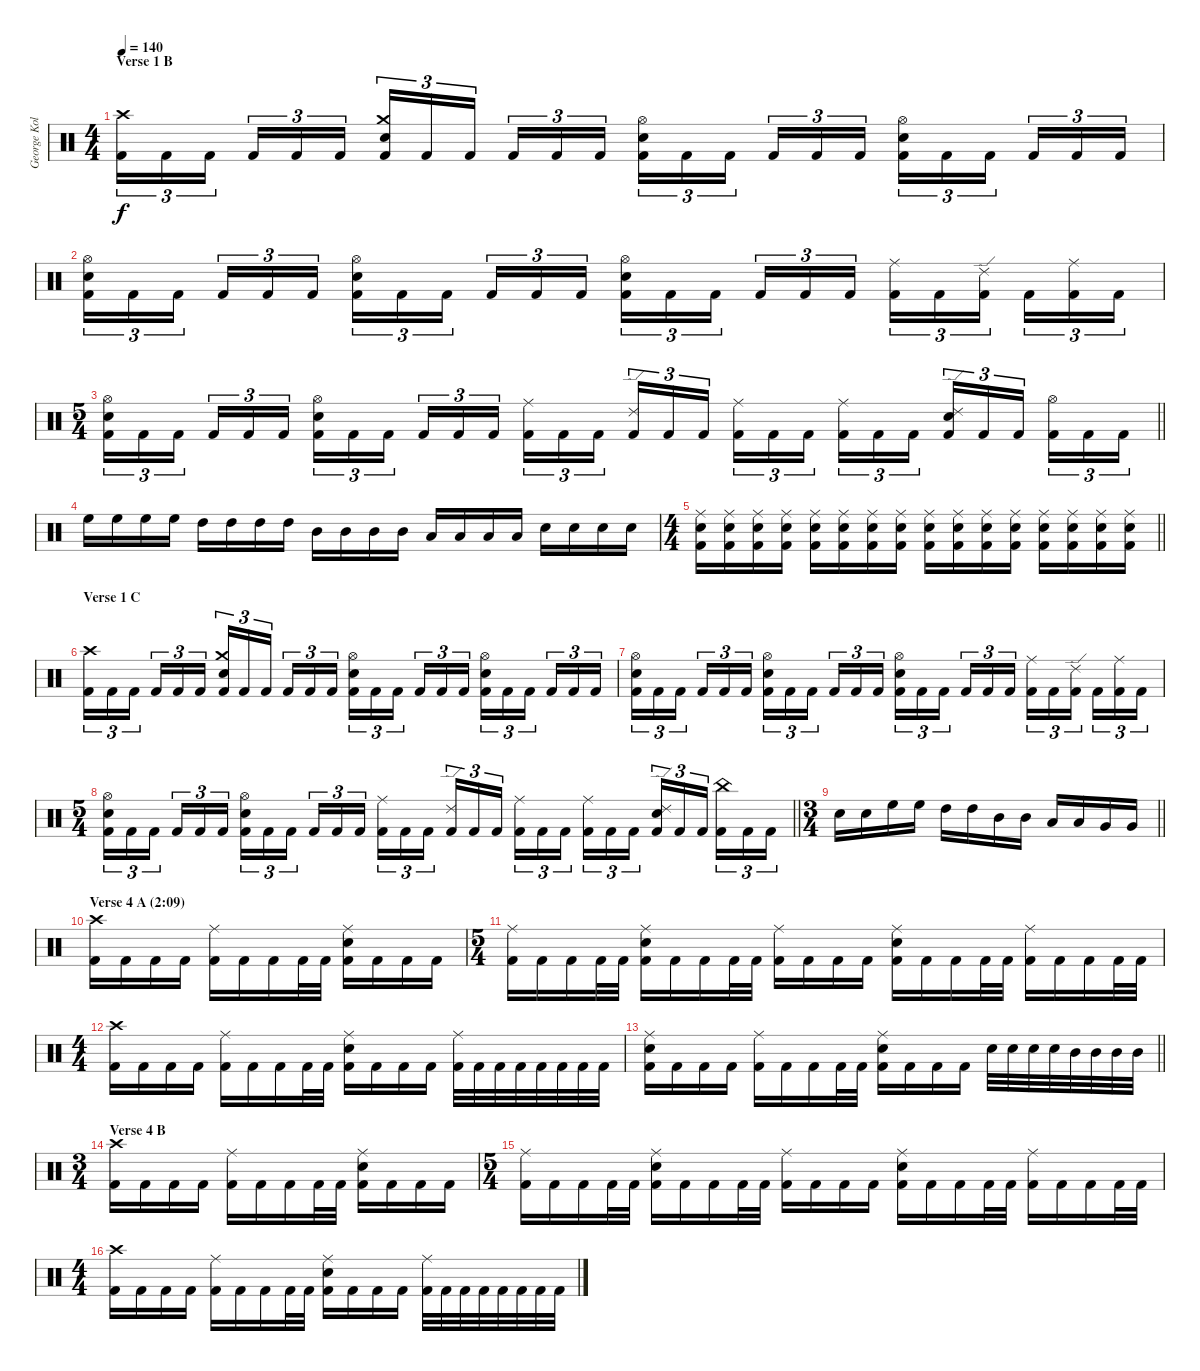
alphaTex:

\track ("George Kollias" "George Kol") {instrument percussion}
\staff {score}
\articulation defaults
\ts (4 4)
\section ("" "Verse 1 B")
\tempo 140
\clef neutral
\ks c
("Crash high (hit)" "Kick (hit) 2").16{tu (3 2) dy f} "Kick (hit) 2".16{tu (3 2)} "Kick (hit) 2".16{tu (3 2) beam splitsecondary} "Kick (hit) 2".16{tu (3 2)} "Kick (hit) 2".16{tu (3 2)} "Kick (hit) 2".16{tu (3 2)} ("Crash medium (hit)" "Electric Snare (hit)" "Kick (hit) 2").16{tu (3 2)} "Kick (hit) 2".16{tu (3 2)} "Kick (hit) 2".16{tu (3 2) beam splitsecondary} "Kick (hit) 2".16{tu (3 2)} "Kick (hit) 2".16{tu (3 2)} "Kick (hit) 2".16{tu (3 2)} ("Hi-Hat (open)" "Electric Snare (hit)" "Kick (hit) 2").16{tu (3 2)} "Kick (hit) 2".16{tu (3 2)} "Kick (hit) 2".16{tu (3 2) beam splitsecondary} "Kick (hit) 2".16{tu (3 2)} "Kick (hit) 2".16{tu (3 2)} "Kick (hit) 2".16{tu (3 2)} ("Hi-Hat (open)" "Electric Snare (hit)" "Kick (hit) 2").16{tu (3 2)} "Kick (hit) 2".16{tu (3 2)} "Kick (hit) 2".16{tu (3 2) beam splitsecondary} "Kick (hit) 2".16{tu (3 2)} "Kick (hit) 2".16{tu (3 2)} "Kick (hit) 2".16{tu (3 2)} |
("Hi-Hat (open)" "Electric Snare (hit)" "Kick (hit) 2").16{tu (3 2)} "Kick (hit) 2".16{tu (3 2)} "Kick (hit) 2".16{tu (3 2) beam splitsecondary} "Kick (hit) 2".16{tu (3 2)} "Kick (hit) 2".16{tu (3 2)} "Kick (hit) 2".16{tu (3 2)} ("Hi-Hat (open)" "Electric Snare (hit)" "Kick (hit) 2").16{tu (3 2)} "Kick (hit) 2".16{tu (3 2)} "Kick (hit) 2".16{tu (3 2) beam splitsecondary} "Kick (hit) 2".16{tu (3 2)} "Kick (hit) 2".16{tu (3 2)} "Kick (hit) 2".16{tu (3 2)} ("Hi-Hat (open)" "Electric Snare (hit)" "Kick (hit) 2").16{tu (3 2)} "Kick (hit) 2".16{tu (3 2)} "Kick (hit) 2".16{tu (3 2) beam splitsecondary} "Kick (hit) 2".16{tu (3 2)} "Kick (hit) 2".16{tu (3 2)} "Kick (hit) 2".16{tu (3 2)} ("Ride (middle)" "Kick (hit) 2").16{tu (3 2)} "Kick (hit) 2".16{tu (3 2)} ("Ride (edge) 2" "Kick (hit) 2").16{tu (3 2) beam splitsecondary} "Kick (hit) 2".16{tu (3 2)} ("Ride (middle)" "Kick (hit) 2").16{tu (3 2)} "Kick (hit) 2".16{tu (3 2)} |
\ts (5 4)
\barLineRight lightlight
("Hi-Hat (open)" "Electric Snare (hit)" "Kick (hit) 2").16{tu (3 2)} "Kick (hit) 2".16{tu (3 2)} "Kick (hit) 2".16{tu (3 2) beam splitsecondary} "Kick (hit) 2".16{tu (3 2)} "Kick (hit) 2".16{tu (3 2)} "Kick (hit) 2".16{tu (3 2)} ("Hi-Hat (open)" "Electric Snare (hit)" "Kick (hit) 2").16{tu (3 2)} "Kick (hit) 2".16{tu (3 2)} "Kick (hit) 2".16{tu (3 2) beam splitsecondary} "Kick (hit) 2".16{tu (3 2)} "Kick (hit) 2".16{tu (3 2)} "Kick (hit) 2".16{tu (3 2)} ("Ride (middle)" "Kick (hit) 2").16{tu (3 2)} "Kick (hit) 2".16{tu (3 2)} "Kick (hit) 2".16{tu (3 2) beam splitsecondary} ("Ride (edge) 2" "Kick (hit) 2").16{tu (3 2)} "Kick (hit) 2".16{tu (3 2)} "Kick (hit) 2".16{tu (3 2)} ("Ride (middle)" "Kick (hit) 2").16{tu (3 2)} "Kick (hit) 2".16{tu (3 2)} "Kick (hit) 2".16{tu (3 2) beam splitsecondary} ("Ride (middle)" "Kick (hit) 2").16{tu (3 2)} "Kick (hit) 2".16{tu (3 2)} "Kick (hit) 2".16{tu (3 2)} ("Ride (edge) 2" "Electric Snare (hit)" "Kick (hit) 2").16{tu (3 2)} "Kick (hit) 2".16{tu (3 2)} "Kick (hit) 2".16{tu (3 2) beam splitsecondary} ("Hi-Hat (open)" "Kick (hit) 2").16{tu (3 2)} "Kick (hit) 2".16{tu (3 2)} "Kick (hit) 2".16{tu (3 2)} |
"High Floor Tom (hit)".16 "High Floor Tom (hit)".16 "High Floor Tom (hit)".16 "High Floor Tom (hit)".16 "High Tom (hit)".16 "High Tom (hit)".16 "High Tom (hit)".16 "High Tom (hit)".16 "Mid Tom (hit)".16 "Mid Tom (hit)".16 "Mid Tom (hit)".16 "Mid Tom (hit)".16 "Low Tom (hit)".16 "Low Tom (hit)".16 "Low Tom (hit)".16 "Low Tom (hit)".16 "Electric Snare (hit)".16 "Electric Snare (hit)".16 "Electric Snare (hit)".16 "Electric Snare (hit)".16 |
\ts (4 4)
\barLineRight lightlight
("Ride (middle)" "Electric Snare (hit)" "Kick (hit) 2").16 ("Ride (middle)" "Electric Snare (hit)" "Kick (hit) 2").16 ("Ride (middle)" "Electric Snare (hit)" "Kick (hit) 2").16 ("Ride (middle)" "Electric Snare (hit)" "Kick (hit) 2").16 ("Ride (middle)" "Electric Snare (hit)" "Kick (hit) 2").16 ("Ride (middle)" "Electric Snare (hit)" "Kick (hit) 2").16 ("Ride (middle)" "Electric Snare (hit)" "Kick (hit) 2").16 ("Ride (middle)" "Electric Snare (hit)" "Kick (hit) 2").16 ("Ride (middle)" "Electric Snare (hit)" "Kick (hit) 2").16 ("Ride (middle)" "Electric Snare (hit)" "Kick (hit) 2").16 ("Ride (middle)" "Electric Snare (hit)" "Kick (hit) 2").16 ("Ride (middle)" "Electric Snare (hit)" "Kick (hit) 2").16 ("Ride (middle)" "Electric Snare (hit)" "Kick (hit) 2").16 ("Ride (middle)" "Electric Snare (hit)" "Kick (hit) 2").16 ("Ride (middle)" "Electric Snare (hit)" "Kick (hit) 2").16 ("Ride (middle)" "Electric Snare (hit)" "Kick (hit) 2").16 |
\section ("" "Verse 1 C")
("Crash high (hit)" "Kick (hit) 2").16{tu (3 2)} "Kick (hit) 2".16{tu (3 2)} "Kick (hit) 2".16{tu (3 2) beam splitsecondary} "Kick (hit) 2".16{tu (3 2)} "Kick (hit) 2".16{tu (3 2)} "Kick (hit) 2".16{tu (3 2)} ("Crash medium (hit)" "Electric Snare (hit)" "Kick (hit) 2").16{tu (3 2)} "Kick (hit) 2".16{tu (3 2)} "Kick (hit) 2".16{tu (3 2) beam splitsecondary} "Kick (hit) 2".16{tu (3 2)} "Kick (hit) 2".16{tu (3 2)} "Kick (hit) 2".16{tu (3 2)} ("Hi-Hat (open)" "Electric Snare (hit)" "Kick (hit) 2").16{tu (3 2)} "Kick (hit) 2".16{tu (3 2)} "Kick (hit) 2".16{tu (3 2) beam splitsecondary} "Kick (hit) 2".16{tu (3 2)} "Kick (hit) 2".16{tu (3 2)} "Kick (hit) 2".16{tu (3 2)} ("Hi-Hat (open)" "Electric Snare (hit)" "Kick (hit) 2").16{tu (3 2)} "Kick (hit) 2".16{tu (3 2)} "Kick (hit) 2".16{tu (3 2) beam splitsecondary} "Kick (hit) 2".16{tu (3 2)} "Kick (hit) 2".16{tu (3 2)} "Kick (hit) 2".16{tu (3 2)} |
("Hi-Hat (open)" "Electric Snare (hit)" "Kick (hit) 2").16{tu (3 2)} "Kick (hit) 2".16{tu (3 2)} "Kick (hit) 2".16{tu (3 2) beam splitsecondary} "Kick (hit) 2".16{tu (3 2)} "Kick (hit) 2".16{tu (3 2)} "Kick (hit) 2".16{tu (3 2)} ("Hi-Hat (open)" "Electric Snare (hit)" "Kick (hit) 2").16{tu (3 2)} "Kick (hit) 2".16{tu (3 2)} "Kick (hit) 2".16{tu (3 2) beam splitsecondary} "Kick (hit) 2".16{tu (3 2)} "Kick (hit) 2".16{tu (3 2)} "Kick (hit) 2".16{tu (3 2)} ("Hi-Hat (open)" "Electric Snare (hit)" "Kick (hit) 2").16{tu (3 2)} "Kick (hit) 2".16{tu (3 2)} "Kick (hit) 2".16{tu (3 2) beam splitsecondary} "Kick (hit) 2".16{tu (3 2)} "Kick (hit) 2".16{tu (3 2)} "Kick (hit) 2".16{tu (3 2)} ("Ride (middle)" "Kick (hit) 2").16{tu (3 2)} "Kick (hit) 2".16{tu (3 2)} ("Ride (edge) 2" "Kick (hit) 2").16{tu (3 2) beam splitsecondary} "Kick (hit) 2".16{tu (3 2)} ("Ride (middle)" "Kick (hit) 2").16{tu (3 2)} "Kick (hit) 2".16{tu (3 2)} |
\ts (5 4)
\barLineRight lightlight
("Hi-Hat (open)" "Electric Snare (hit)" "Kick (hit) 2").16{tu (3 2)} "Kick (hit) 2".16{tu (3 2)} "Kick (hit) 2".16{tu (3 2) beam splitsecondary} "Kick (hit) 2".16{tu (3 2)} "Kick (hit) 2".16{tu (3 2)} "Kick (hit) 2".16{tu (3 2)} ("Hi-Hat (open)" "Electric Snare (hit)" "Kick (hit) 2").16{tu (3 2)} "Kick (hit) 2".16{tu (3 2)} "Kick (hit) 2".16{tu (3 2) beam splitsecondary} "Kick (hit) 2".16{tu (3 2)} "Kick (hit) 2".16{tu (3 2)} "Kick (hit) 2".16{tu (3 2)} ("Ride (middle)" "Kick (hit) 2").16{tu (3 2)} "Kick (hit) 2".16{tu (3 2)} "Kick (hit) 2".16{tu (3 2) beam splitsecondary} ("Ride (edge) 2" "Kick (hit) 2").16{tu (3 2)} "Kick (hit) 2".16{tu (3 2)} "Kick (hit) 2".16{tu (3 2)} ("Ride (middle)" "Kick (hit) 2").16{tu (3 2)} "Kick (hit) 2".16{tu (3 2)} "Kick (hit) 2".16{tu (3 2) beam splitsecondary} ("Ride (middle)" "Kick (hit) 2").16{tu (3 2)} "Kick (hit) 2".16{tu (3 2)} "Kick (hit) 2".16{tu (3 2)} ("Ride (edge) 2" "Electric Snare (hit)" "Kick (hit) 2").16{tu (3 2)} "Kick (hit) 2".16{tu (3 2)} "Kick (hit) 2".16{tu (3 2) beam splitsecondary} ("China (hit)" "Kick (hit) 2").16{tu (3 2)} "Kick (hit) 2".16{tu (3 2)} "Kick (hit) 2".16{tu (3 2)} |
\ts (3 4)
\barLineRight lightlight "Electric Snare (hit)".16 "Electric Snare (hit)".16 "High Floor Tom (hit)".16 "High Floor Tom (hit)".16 "High Tom (hit)".16 "High Tom (hit)".16 "Mid Tom (hit)".16 "Mid Tom (hit)".16 "Low Tom (hit)".16 "Low Tom (hit)".16 "Very Low Tom (hit)".16 "Very Low Tom (hit)".16
|
\section ("" "Verse 4 A (2:09)")
("Crash high (hit)" "Kick (hit) 2").16 "Kick (hit) 2".16 "Kick (hit) 2".16 "Kick (hit) 2".16 ("Ride (middle)" "Kick (hit) 2").16 "Kick (hit) 2".16 "Kick (hit) 2".16 "Kick (hit) 2".32 "Kick (hit) 2".32 ("Ride (middle)" "Electric Snare (hit)" "Kick (hit) 2").16 "Kick (hit) 2".16 "Kick (hit) 2".16 "Kick (hit) 2".16 |
\ts (5 4)
("Ride (middle)" "Kick (hit) 2").16 "Kick (hit) 2".16 "Kick (hit) 2".16 "Kick (hit) 2".32 "Kick (hit) 2".32 ("Ride (middle)" "Electric Snare (hit)" "Kick (hit) 2").16 "Kick (hit) 2".16 "Kick (hit) 2".16 "Kick (hit) 2".32 "Kick (hit) 2".32 ("Ride (middle)" "Kick (hit) 2").16 "Kick (hit) 2".16 "Kick (hit) 2".16 "Kick (hit) 2".16 ("Ride (middle)" "Electric Snare (hit)" "Kick (hit) 2").16 "Kick (hit) 2".16 "Kick (hit) 2".16 "Kick (hit) 2".32 "Kick (hit) 2".32 ("Ride (middle)" "Kick (hit) 2").16 "Kick (hit) 2".16 "Kick (hit) 2".16 "Kick (hit) 2".32 "Kick (hit) 2".32 |
\ts (4 4)
("Crash high (hit)" "Kick (hit) 2").16 "Kick (hit) 2".16 "Kick (hit) 2".16 "Kick (hit) 2".16 ("Ride (middle)" "Kick (hit) 2").16 "Kick (hit) 2".16 "Kick (hit) 2".16 "Kick (hit) 2".32 "Kick (hit) 2".32 ("Ride (middle)" "Electric Snare (hit)" "Kick (hit) 2").16 "Kick (hit) 2".16 "Kick (hit) 2".16 "Kick (hit) 2".16 ("Ride (middle)" "Kick (hit) 2").32 "Kick (hit) 2".32 "Kick (hit) 2".32 "Kick (hit) 2".32 "Kick (hit) 2".32 "Kick (hit) 2".32 "Kick (hit) 2".32 "Kick (hit) 2".32 |
\barLineRight lightlight
("Ride (middle)" "Electric Snare (hit)" "Kick (hit) 2").16 "Kick (hit) 2".16 "Kick (hit) 2".16 "Kick (hit) 2".16 ("Ride (middle)" "Kick (hit) 2").16 "Kick (hit) 2".16 "Kick (hit) 2".16 "Kick (hit) 2".32 "Kick (hit) 2".32 ("Ride (middle)" "Electric Snare (hit)" "Kick (hit) 2").16 "Kick (hit) 2".16 "Kick (hit) 2".16 "Kick (hit) 2".16 "Electric Snare (hit)".32 "Electric Snare (hit)".32 "Electric Snare (hit)".32 "Electric Snare (hit)".32 "Mid Tom (hit)".32 "Mid Tom (hit)".32 "Mid Tom (hit)".32 "Mid Tom (hit)".32 |
\ts (3 4)
\section ("" "Verse 4 B")
("Crash high (hit)" "Kick (hit) 2").16 "Kick (hit) 2".16 "Kick (hit) 2".16 "Kick (hit) 2".16 ("Ride (middle)" "Kick (hit) 2").16 "Kick (hit) 2".16 "Kick (hit) 2".16 "Kick (hit) 2".32 "Kick (hit) 2".32 ("Ride (middle)" "Electric Snare (hit)" "Kick (hit) 2").16 "Kick (hit) 2".16 "Kick (hit) 2".16 "Kick (hit) 2".16 |
\ts (5 4)
("Ride (middle)" "Kick (hit) 2").16 "Kick (hit) 2".16 "Kick (hit) 2".16 "Kick (hit) 2".32 "Kick (hit) 2".32 ("Ride (middle)" "Electric Snare (hit)" "Kick (hit) 2").16 "Kick (hit) 2".16 "Kick (hit) 2".16 "Kick (hit) 2".32 "Kick (hit) 2".32 ("Ride (middle)" "Kick (hit) 2").16 "Kick (hit) 2".16 "Kick (hit) 2".16 "Kick (hit) 2".16 ("Ride (middle)" "Electric Snare (hit)" "Kick (hit) 2").16 "Kick (hit) 2".16 "Kick (hit) 2".16 "Kick (hit) 2".32 "Kick (hit) 2".32 ("Ride (middle)" "Kick (hit) 2").16 "Kick (hit) 2".16 "Kick (hit) 2".16 "Kick (hit) 2".32 "Kick (hit) 2".32 |
\ts (4 4)
("Crash high (hit)" "Kick (hit) 2").16 "Kick (hit) 2".16 "Kick (hit) 2".16 "Kick (hit) 2".16 ("Ride (middle)" "Kick (hit) 2").16 "Kick (hit) 2".16 "Kick (hit) 2".16 "Kick (hit) 2".32 "Kick (hit) 2".32 ("Ride (middle)" "Electric Snare (hit)" "Kick (hit) 2").16 "Kick (hit) 2".16 "Kick (hit) 2".16 "Kick (hit) 2".16 ("Ride (middle)" "Kick (hit) 2").32 "Kick (hit) 2".32 "Kick (hit) 2".32 "Kick (hit) 2".32 "Kick (hit) 2".32 "Kick (hit) 2".32 "Kick (hit) 2".32 "Kick (hit) 2".32
